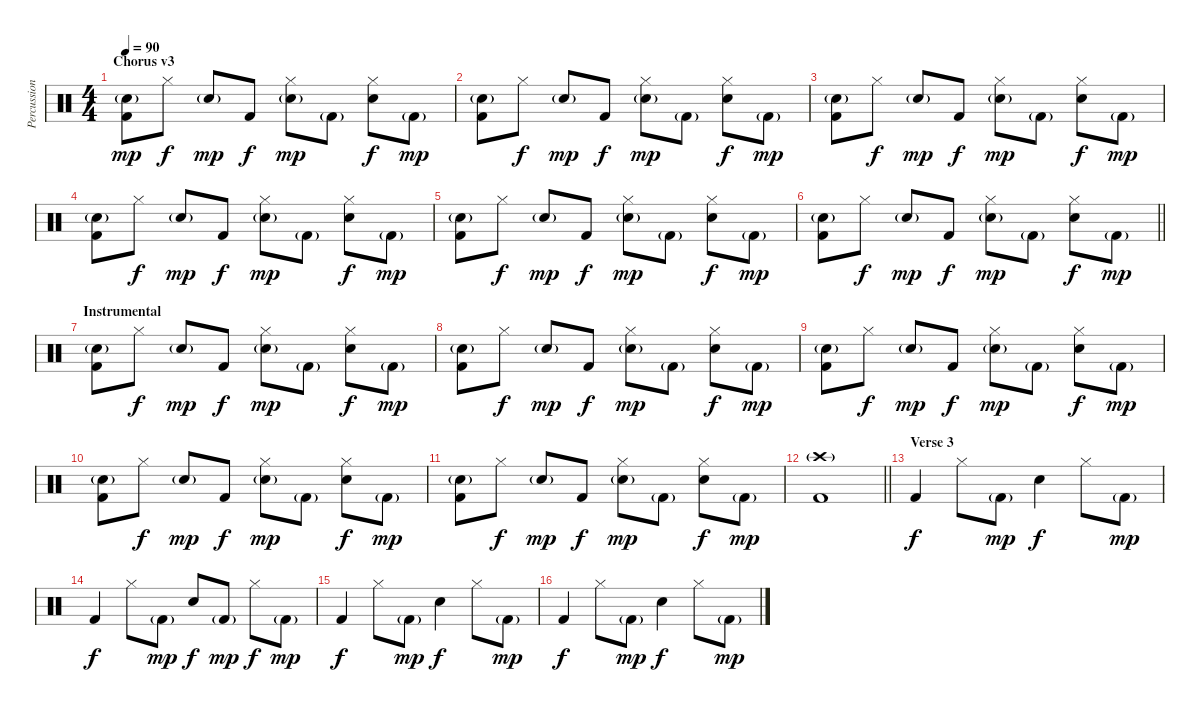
\track ("Percussion" "Percussion") {instrument percussion}
\staff {score}
\articulation defaults
\ts (4 4)
\section ("" "Chorus v3")
\tempo 90
\clef neutral
\ks c
("Snare (hit) 2"{g} "Kick (hit) 2").8{dy mp} "Hi-Hat (closed)".8{dy f} "Snare (hit) 2"{g}.8{dy mp} "Kick (hit) 2".8{dy f} ("Hi-Hat (closed)" "Snare (hit) 2"{g}).8{dy mp} "Kick (hit) 2"{g}.8 ("Hi-Hat (closed)" "Snare (hit) 2").8{dy f} "Kick (hit) 2"{g}.8{dy mp} |
("Snare (hit) 2"{g} "Kick (hit) 2").8 "Hi-Hat (closed)".8{dy f} "Snare (hit) 2"{g}.8{dy mp} "Kick (hit) 2".8{dy f} ("Hi-Hat (closed)" "Snare (hit) 2"{g}).8{dy mp} "Kick (hit) 2"{g}.8 ("Hi-Hat (closed)" "Snare (hit) 2").8{dy f} "Kick (hit) 2"{g}.8{dy mp} |
("Snare (hit) 2"{g} "Kick (hit) 2").8 "Hi-Hat (closed)".8{dy f} "Snare (hit) 2"{g}.8{dy mp} "Kick (hit) 2".8{dy f} ("Hi-Hat (closed)" "Snare (hit) 2"{g}).8{dy mp} "Kick (hit) 2"{g}.8 ("Hi-Hat (closed)" "Snare (hit) 2").8{dy f} "Kick (hit) 2"{g}.8{dy mp} |
("Snare (hit) 2"{g} "Kick (hit) 2").8 "Hi-Hat (closed)".8{dy f} "Snare (hit) 2"{g}.8{dy mp} "Kick (hit) 2".8{dy f} ("Hi-Hat (closed)" "Snare (hit) 2"{g}).8{dy mp} "Kick (hit) 2"{g}.8 ("Hi-Hat (closed)" "Snare (hit) 2").8{dy f} "Kick (hit) 2"{g}.8{dy mp} |
("Snare (hit) 2"{g} "Kick (hit) 2").8 "Hi-Hat (closed)".8{dy f} "Snare (hit) 2"{g}.8{dy mp} "Kick (hit) 2".8{dy f} ("Hi-Hat (closed)" "Snare (hit) 2"{g}).8{dy mp} "Kick (hit) 2"{g}.8 ("Hi-Hat (closed)" "Snare (hit) 2").8{dy f} "Kick (hit) 2"{g}.8{dy mp} |
\barLineRight lightlight
("Snare (hit) 2"{g} "Kick (hit) 2").8 "Hi-Hat (closed)".8{dy f} "Snare (hit) 2"{g}.8{dy mp} "Kick (hit) 2".8{dy f} ("Hi-Hat (closed)" "Snare (hit) 2"{g}).8{dy mp} "Kick (hit) 2"{g}.8 ("Hi-Hat (closed)" "Snare (hit) 2").8{dy f} "Kick (hit) 2"{g}.8{dy mp} |
\section ("" "Instrumental")
("Snare (hit) 2"{g} "Kick (hit) 2").8 "Hi-Hat (closed)".8{dy f} "Snare (hit) 2"{g}.8{dy mp} "Kick (hit) 2".8{dy f} ("Hi-Hat (closed)" "Snare (hit) 2"{g}).8{dy mp} "Kick (hit) 2"{g}.8 ("Hi-Hat (closed)" "Snare (hit) 2").8{dy f} "Kick (hit) 2"{g}.8{dy mp} |
("Snare (hit) 2"{g} "Kick (hit) 2").8 "Hi-Hat (closed)".8{dy f} "Snare (hit) 2"{g}.8{dy mp} "Kick (hit) 2".8{dy f} ("Hi-Hat (closed)" "Snare (hit) 2"{g}).8{dy mp} "Kick (hit) 2"{g}.8 ("Hi-Hat (closed)" "Snare (hit) 2").8{dy f} "Kick (hit) 2"{g}.8{dy mp} |
("Snare (hit) 2"{g} "Kick (hit) 2").8 "Hi-Hat (closed)".8{dy f} "Snare (hit) 2"{g}.8{dy mp} "Kick (hit) 2".8{dy f} ("Hi-Hat (closed)" "Snare (hit) 2"{g}).8{dy mp} "Kick (hit) 2"{g}.8 ("Hi-Hat (closed)" "Snare (hit) 2").8{dy f} "Kick (hit) 2"{g}.8{dy mp} |
("Snare (hit) 2"{g} "Kick (hit) 2").8 "Hi-Hat (closed)".8{dy f} "Snare (hit) 2"{g}.8{dy mp} "Kick (hit) 2".8{dy f} ("Hi-Hat (closed)" "Snare (hit) 2"{g}).8{dy mp} "Kick (hit) 2"{g}.8 ("Hi-Hat (closed)" "Snare (hit) 2").8{dy f} "Kick (hit) 2"{g}.8{dy mp} |
("Snare (hit) 2"{g} "Kick (hit) 2").8 "Hi-Hat (closed)".8{dy f} "Snare (hit) 2"{g}.8{dy mp} "Kick (hit) 2".8{dy f} ("Hi-Hat (closed)" "Snare (hit) 2"{g}).8{dy mp} "Kick (hit) 2"{g}.8 ("Hi-Hat (closed)" "Snare (hit) 2").8{dy f} "Kick (hit) 2"{g}.8{dy mp} |
\barLineRight lightlight
("Crash high (hit)"{g} "Kick (hit) 2").1 |
\section ("" "Verse 3")
"Kick (hit) 2".4{dy f} "Hi-Hat (closed)".8 "Kick (hit) 2"{g}.8{dy mp} "Snare (hit) 2".4{dy f} "Hi-Hat (closed)".8 "Kick (hit) 2"{g}.8{dy mp} |
"Kick (hit) 2".4{dy f} "Hi-Hat (closed)".8 "Kick (hit) 2"{g}.8{dy mp} "Snare (hit) 2".8{dy f} "Kick (hit) 2"{g}.8{dy mp} "Hi-Hat (closed)".8{dy f} "Kick (hit) 2"{g}.8{dy mp} |
"Kick (hit) 2".4{dy f} "Hi-Hat (closed)".8 "Kick (hit) 2"{g}.8{dy mp} "Snare (hit) 2".4{dy f} "Hi-Hat (closed)".8 "Kick (hit) 2"{g}.8{dy mp} |
"Kick (hit) 2".4{dy f} "Hi-Hat (closed)".8 "Kick (hit) 2"{g}.8{dy mp} "Snare (hit) 2".4{dy f} "Hi-Hat (closed)".8 "Kick (hit) 2"{g}.8{dy mp}
